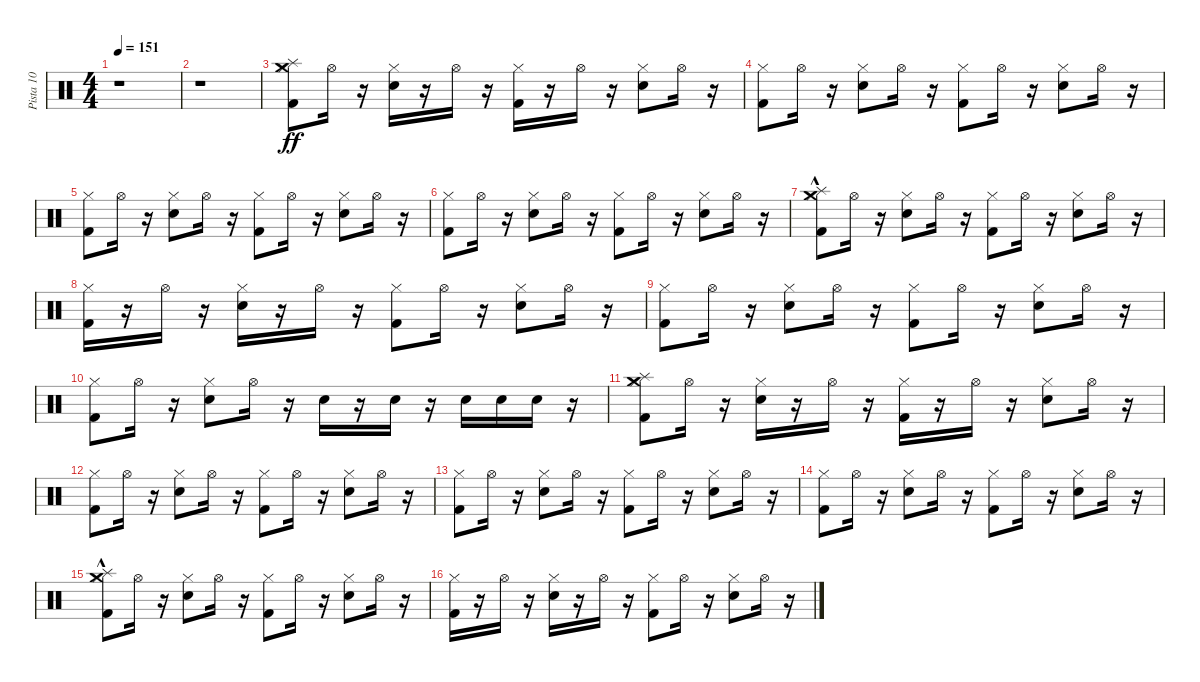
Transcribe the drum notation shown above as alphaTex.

\track ("Pista 10" "Pista 10") {instrument percussion}
\staff {score}
\articulation defaults
\ts (4 4)
\tempo 151
\clef neutral
\ks c
r.1{dy ff} |
r.1 |
("Hi-Hat (closed)" "Kick (hit) 2" "Crash medium (hit)" "Splash (hit)").8 "Hi-Hat (open)".16 r.16 ("Snare (hit) 2" "Hi-Hat (closed)").16 r.16 "Hi-Hat (open)".16 r.16 ("Kick (hit) 2" "Hi-Hat (closed)").16 r.16 "Hi-Hat (open)".16 r.16 ("Snare (hit) 2" "Hi-Hat (closed)").8 "Hi-Hat (open)".16 r.16 |
("Kick (hit) 2" "Hi-Hat (closed)").8 "Hi-Hat (open)".16 r.16 ("Snare (hit) 2" "Hi-Hat (closed)").8 "Hi-Hat (open)".16 r.16 ("Kick (hit) 2" "Hi-Hat (closed)").8 "Hi-Hat (open)".16 r.16 ("Snare (hit) 2" "Hi-Hat (closed)").8 "Hi-Hat (open)".16 r.16 |
("Hi-Hat (closed)" "Kick (hit) 2").8 "Hi-Hat (open)".16 r.16 ("Hi-Hat (closed)" "Snare (hit) 2").8 "Hi-Hat (open)".16 r.16 ("Hi-Hat (closed)" "Kick (hit) 2").8 "Hi-Hat (open)".16 r.16 ("Snare (hit) 2" "Hi-Hat (closed)").8 "Hi-Hat (open)".16 r.16 |
("Kick (hit) 2" "Hi-Hat (closed)").8 "Hi-Hat (open)".16 r.16 ("Snare (hit) 2" "Hi-Hat (closed)").8 "Hi-Hat (open)".16 r.16 ("Kick (hit) 2" "Hi-Hat (closed)").8 "Hi-Hat (open)".16 r.16 ("Snare (hit) 2" "Hi-Hat (closed)").8 "Hi-Hat (open)".16 r.16 |
("Crash medium (hit)"{hac} "Splash (hit)"{hac} "Kick (hit) 2" "Hi-Hat (closed)").8 "Hi-Hat (open)".16 r.16 ("Snare (hit) 2" "Hi-Hat (closed)").8 "Hi-Hat (open)".16 r.16 ("Hi-Hat (closed)" "Kick (hit) 2").8 "Hi-Hat (open)".16 r.16 ("Hi-Hat (closed)" "Snare (hit) 2").8 "Hi-Hat (open)".16 r.16 |
("Hi-Hat (closed)" "Kick (hit) 2").16 r.16 "Hi-Hat (open)".16 r.16 ("Snare (hit) 2" "Hi-Hat (closed)").16 r.16 "Hi-Hat (open)".16 r.16 ("Kick (hit) 2" "Hi-Hat (closed)").8 "Hi-Hat (open)".16 r.16 ("Snare (hit) 2" "Hi-Hat (closed)").8 "Hi-Hat (open)".16 r.16 |
("Kick (hit) 2" "Hi-Hat (closed)").8 "Hi-Hat (open)".16 r.16 ("Snare (hit) 2" "Hi-Hat (closed)").8 "Hi-Hat (open)".16 r.16 ("Kick (hit) 2" "Hi-Hat (closed)").8 "Hi-Hat (open)".16 r.16 ("Snare (hit) 2" "Hi-Hat (closed)").8 "Hi-Hat (open)".16 r.16 |
("Hi-Hat (closed)" "Kick (hit) 2").8 "Hi-Hat (open)".16 r.16 ("Hi-Hat (closed)" "Snare (hit) 2").8 "Hi-Hat (open)".16 r.16 "Snare (hit) 2".16 r.16 "Snare (hit) 2".16 r.16 "Snare (hit) 2".16 "Snare (hit) 2".16 "Snare (hit) 2".16 r.16 |
("Kick (hit) 2" "Splash (hit)" "Crash medium (hit)" "Hi-Hat (closed)").8 "Hi-Hat (open)".16 r.16 ("Snare (hit) 2" "Hi-Hat (closed)").16 r.16 "Hi-Hat (open)".16 r.16 ("Kick (hit) 2" "Hi-Hat (closed)").16 r.16 "Hi-Hat (open)".16 r.16 ("Snare (hit) 2" "Hi-Hat (closed)").8 "Hi-Hat (open)".16 r.16 |
("Kick (hit) 2" "Hi-Hat (closed)").8 "Hi-Hat (open)".16 r.16 ("Snare (hit) 2" "Hi-Hat (closed)").8 "Hi-Hat (open)".16 r.16 ("Hi-Hat (closed)" "Kick (hit) 2").8 "Hi-Hat (open)".16 r.16 ("Hi-Hat (closed)" "Snare (hit) 2").8 "Hi-Hat (open)".16 r.16 |
("Hi-Hat (closed)" "Kick (hit) 2").8 "Hi-Hat (open)".16 r.16 ("Snare (hit) 2" "Hi-Hat (closed)").8 "Hi-Hat (open)".16 r.16 ("Kick (hit) 2" "Hi-Hat (closed)").8 "Hi-Hat (open)".16 r.16 ("Snare (hit) 2" "Hi-Hat (closed)").8 "Hi-Hat (open)".16 r.16 |
("Kick (hit) 2" "Hi-Hat (closed)").8 "Hi-Hat (open)".16 r.16 ("Snare (hit) 2" "Hi-Hat (closed)").8 "Hi-Hat (open)".16 r.16 ("Kick (hit) 2" "Hi-Hat (closed)").8 "Hi-Hat (open)".16 r.16 ("Snare (hit) 2" "Hi-Hat (closed)").8 "Hi-Hat (open)".16 r.16 |
("Hi-Hat (closed)" "Splash (hit)"{hac} "Crash medium (hit)"{hac} "Kick (hit) 2").8 "Hi-Hat (open)".16 r.16 ("Hi-Hat (closed)" "Snare (hit) 2").8 "Hi-Hat (open)".16 r.16 ("Hi-Hat (closed)" "Kick (hit) 2").8 "Hi-Hat (open)".16 r.16 ("Snare (hit) 2" "Hi-Hat (closed)").8 "Hi-Hat (open)".16 r.16 |
("Kick (hit) 2" "Hi-Hat (closed)").16 r.16 "Hi-Hat (open)".16 r.16 ("Snare (hit) 2" "Hi-Hat (closed)").16 r.16 "Hi-Hat (open)".16 r.16 ("Kick (hit) 2" "Hi-Hat (closed)").8 "Hi-Hat (open)".16 r.16 ("Snare (hit) 2" "Hi-Hat (closed)").8 "Hi-Hat (open)".16 r.16
